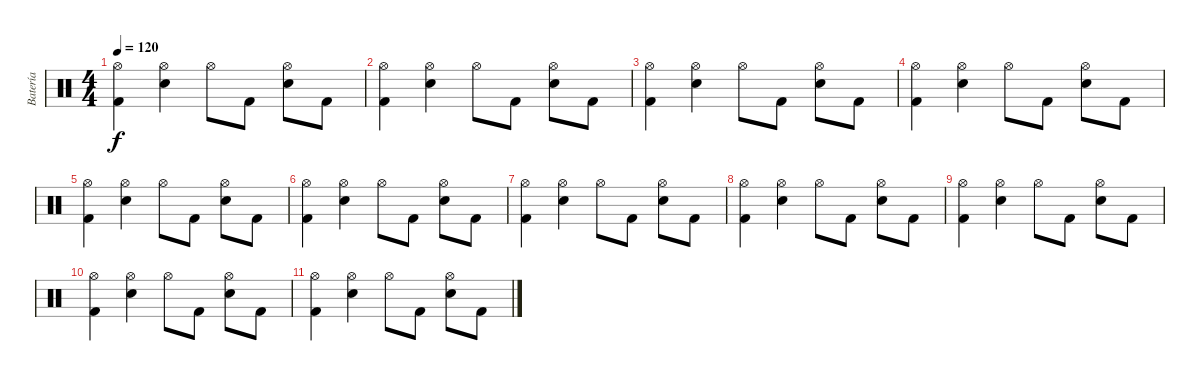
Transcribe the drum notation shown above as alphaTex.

\track ("Batería" "Batería") {instrument percussion}
\staff {score}
\articulation defaults
\ts (4 4)
\tempo 120
\clef neutral
\ks c
("Hi-Hat (open)" "Kick (hit) 2").4{dy f} ("Hi-Hat (open)" "Electric Snare (hit)").4 "Hi-Hat (open)".8 "Kick (hit) 2".8 ("Hi-Hat (open)" "Electric Snare (hit)").8 "Kick (hit) 2".8 |
("Hi-Hat (open)" "Kick (hit) 2").4 ("Hi-Hat (open)" "Electric Snare (hit)").4 "Hi-Hat (open)".8 "Kick (hit) 2".8 ("Hi-Hat (open)" "Electric Snare (hit)").8 "Kick (hit) 2".8 |
("Hi-Hat (open)" "Kick (hit) 2").4 ("Hi-Hat (open)" "Electric Snare (hit)").4 "Hi-Hat (open)".8 "Kick (hit) 2".8 ("Hi-Hat (open)" "Electric Snare (hit)").8 "Kick (hit) 2".8 |
("Hi-Hat (open)" "Kick (hit) 2").4 ("Hi-Hat (open)" "Electric Snare (hit)").4 "Hi-Hat (open)".8 "Kick (hit) 2".8 ("Hi-Hat (open)" "Electric Snare (hit)").8 "Kick (hit) 2".8 |
("Hi-Hat (open)" "Kick (hit) 2").4 ("Hi-Hat (open)" "Electric Snare (hit)").4 "Hi-Hat (open)".8 "Kick (hit) 2".8 ("Hi-Hat (open)" "Electric Snare (hit)").8 "Kick (hit) 2".8 |
("Hi-Hat (open)" "Kick (hit) 2").4 ("Hi-Hat (open)" "Electric Snare (hit)").4 "Hi-Hat (open)".8 "Kick (hit) 2".8 ("Hi-Hat (open)" "Electric Snare (hit)").8 "Kick (hit) 2".8 |
("Hi-Hat (open)" "Kick (hit) 2").4 ("Hi-Hat (open)" "Electric Snare (hit)").4 "Hi-Hat (open)".8 "Kick (hit) 2".8 ("Hi-Hat (open)" "Electric Snare (hit)").8 "Kick (hit) 2".8 |
("Hi-Hat (open)" "Kick (hit) 2").4 ("Hi-Hat (open)" "Electric Snare (hit)").4 "Hi-Hat (open)".8 "Kick (hit) 2".8 ("Hi-Hat (open)" "Electric Snare (hit)").8 "Kick (hit) 2".8 |
("Hi-Hat (open)" "Kick (hit) 2").4 ("Hi-Hat (open)" "Electric Snare (hit)").4 "Hi-Hat (open)".8 "Kick (hit) 2".8 ("Hi-Hat (open)" "Electric Snare (hit)").8 "Kick (hit) 2".8 |
("Hi-Hat (open)" "Kick (hit) 2").4 ("Hi-Hat (open)" "Electric Snare (hit)").4 "Hi-Hat (open)".8 "Kick (hit) 2".8 ("Hi-Hat (open)" "Electric Snare (hit)").8 "Kick (hit) 2".8 |
("Hi-Hat (open)" "Kick (hit) 2").4 ("Hi-Hat (open)" "Electric Snare (hit)").4 "Hi-Hat (open)".8 "Kick (hit) 2".8 ("Hi-Hat (open)" "Electric Snare (hit)").8 "Kick (hit) 2".8
